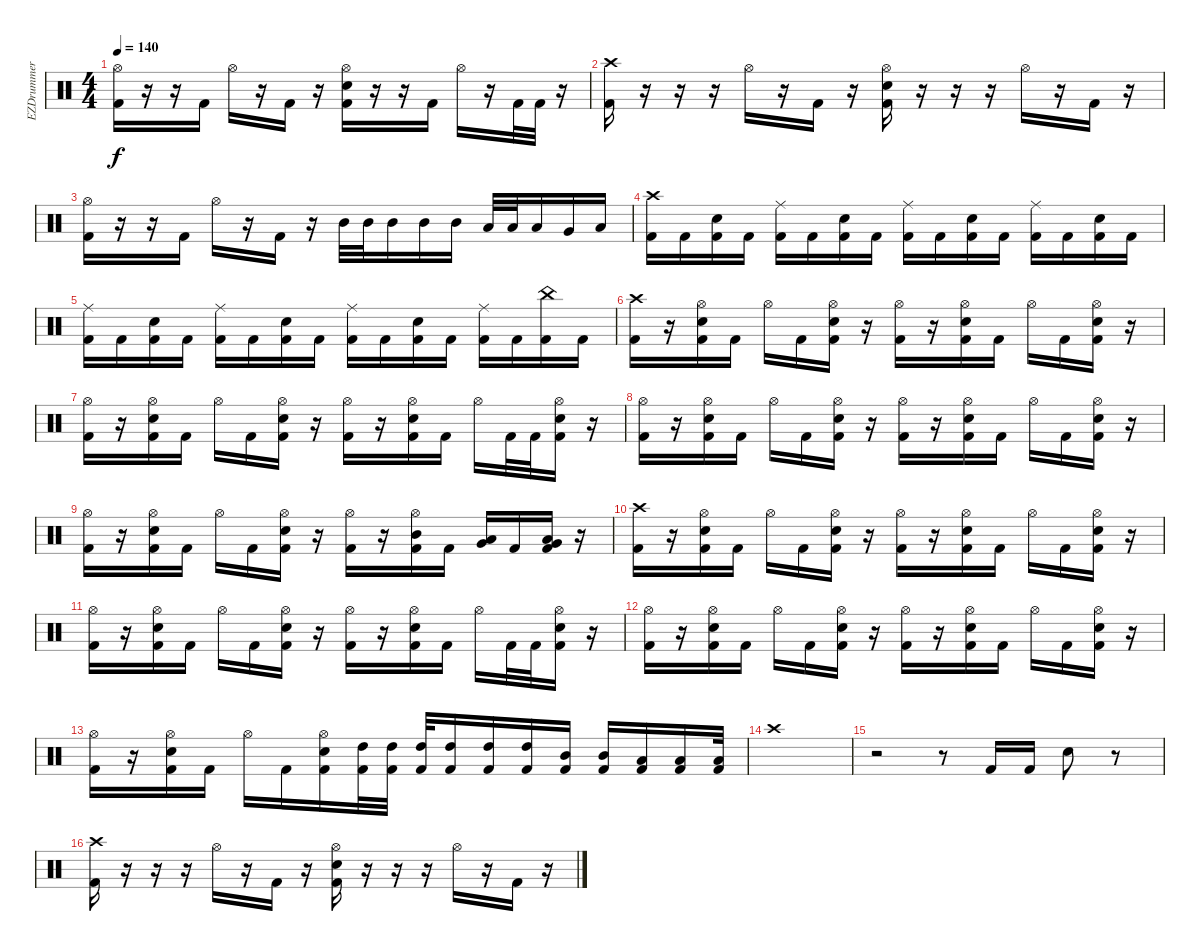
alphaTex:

\track ("EZDrummer" "EZDrummer") {instrument percussion}
\staff {score}
\articulation defaults
\ts (4 4)
\tempo 140
\clef neutral
\ks c
("Hi-Hat (open)" "Kick (hit) 2").16{dy f} r.16 r.16 "Kick (hit) 2".16 "Hi-Hat (open)".16 r.16 "Kick (hit) 2".16 r.16 ("Hi-Hat (open)" "Snare (hit) 2" "Kick (hit) 2").16 r.16 r.16 "Kick (hit) 2".16 "Hi-Hat (open)".16 r.16 "Kick (hit) 2".32 "Kick (hit) 2".32 r.16 |
("Crash high (hit)" "Kick (hit) 2").16 r.16 r.16 r.16 "Hi-Hat (open)".16 r.16 "Kick (hit) 2".16 r.16 ("Hi-Hat (open)" "Snare (hit) 2" "Kick (hit) 2").16 r.16 r.16 r.16 "Hi-Hat (open)".16 r.16 "Kick (hit) 2".16 r.16 |
("Hi-Hat (open)" "Kick (hit) 2").16 r.16 r.16 "Kick (hit) 2".16 "Hi-Hat (open)".16 r.16 "Kick (hit) 2".16 r.16 "Mid Tom (hit)".32 "Mid Tom (hit)".32 "Mid Tom (hit)".16 "Mid Tom (hit)".16 "Mid Tom (hit)".16 "Low Tom (hit)".32 "Low Tom (hit)".32 "Low Tom (hit)".16 "Very Low Tom (hit)".16 "Low Floor Tom (hit)".16 |
("Crash high (hit)" "Kick (hit) 2").16 "Kick (hit) 2".16 ("Snare (hit) 2" "Kick (hit) 2").16 "Kick (hit) 2".16 ("Ride (middle)" "Kick (hit) 2").16 "Kick (hit) 2".16 ("Snare (hit) 2" "Kick (hit) 2").16 "Kick (hit) 2".16 ("Ride (middle)" "Kick (hit) 2").16 "Kick (hit) 2".16 ("Snare (hit) 2" "Kick (hit) 2").16 "Kick (hit) 2".16 ("Ride (middle)" "Kick (hit) 2").16 "Kick (hit) 2".16 ("Snare (hit) 2" "Kick (hit) 2").16 "Kick (hit) 2".16 |
("Ride (middle)" "Kick (hit) 2").16 "Kick (hit) 2".16 ("Snare (hit) 2" "Kick (hit) 2").16 "Kick (hit) 2".16 ("Ride (middle)" "Kick (hit) 2").16 "Kick (hit) 2".16 ("Snare (hit) 2" "Kick (hit) 2").16 "Kick (hit) 2".16 ("Ride (middle)" "Kick (hit) 2").16 "Kick (hit) 2".16 ("Snare (hit) 2" "Kick (hit) 2").16 "Kick (hit) 2".16 ("Ride (middle)" "Kick (hit) 2").16 "Kick (hit) 2".16 ("China (hit)" "Kick (hit) 2").16 "Kick (hit) 2".16 |
("Crash high (hit)" "Kick (hit) 2").16 r.16 ("Hi-Hat (open)" "Snare (hit) 2" "Kick (hit) 2").16 "Kick (hit) 2".16 "Hi-Hat (open)".16 "Kick (hit) 2".16 ("Hi-Hat (open)" "Snare (hit) 2" "Kick (hit) 2").16 r.16 ("Hi-Hat (open)" "Kick (hit) 2").16 r.16 ("Hi-Hat (open)" "Snare (hit) 2" "Kick (hit) 2").16 "Kick (hit) 2".16 "Hi-Hat (open)".16 "Kick (hit) 2".16 ("Hi-Hat (open)" "Snare (hit) 2" "Kick (hit) 2").16 r.16 |
("Hi-Hat (open)" "Kick (hit) 2").16 r.16 ("Hi-Hat (open)" "Snare (hit) 2" "Kick (hit) 2").16 "Kick (hit) 2".16 "Hi-Hat (open)".16 "Kick (hit) 2".16 ("Hi-Hat (open)" "Snare (hit) 2" "Kick (hit) 2").16 r.16 ("Hi-Hat (open)" "Kick (hit) 2").16 r.16 ("Hi-Hat (open)" "Snare (hit) 2" "Kick (hit) 2").16 "Kick (hit) 2".16 "Hi-Hat (open)".16 "Kick (hit) 2".32 "Kick (hit) 2".32 ("Hi-Hat (open)" "Snare (hit) 2" "Kick (hit) 2").16 r.16 |
("Hi-Hat (open)" "Kick (hit) 2").16 r.16 ("Hi-Hat (open)" "Snare (hit) 2" "Kick (hit) 2").16 "Kick (hit) 2".16 "Hi-Hat (open)".16 "Kick (hit) 2".16 ("Hi-Hat (open)" "Snare (hit) 2" "Kick (hit) 2").16 r.16 ("Hi-Hat (open)" "Kick (hit) 2").16 r.16 ("Hi-Hat (open)" "Snare (hit) 2" "Kick (hit) 2").16 "Kick (hit) 2".16 "Hi-Hat (open)".16 "Kick (hit) 2".16 ("Hi-Hat (open)" "Snare (hit) 2" "Kick (hit) 2").16 r.16 |
("Hi-Hat (open)" "Kick (hit) 2").16 r.16 ("Hi-Hat (open)" "Snare (hit) 2" "Kick (hit) 2").16 "Kick (hit) 2".16 "Hi-Hat (open)".16 "Kick (hit) 2".16 ("Hi-Hat (open)" "Snare (hit) 2" "Kick (hit) 2").16 r.16 ("Hi-Hat (open)" "Kick (hit) 2").16 r.16 ("Hi-Hat (open)" "Mid Tom (hit)" "Kick (hit) 2").16 "Kick (hit) 2".16 ("Low Tom (hit)" "Very Low Tom (hit)").16 "Kick (hit) 2".16 ("Low Floor Tom (hit)" "Very Low Tom (hit)" "Kick (hit) 2").16 r.16 |
("Crash high (hit)" "Kick (hit) 2").16 r.16 ("Hi-Hat (open)" "Snare (hit) 2" "Kick (hit) 2").16 "Kick (hit) 2".16 "Hi-Hat (open)".16 "Kick (hit) 2".16 ("Hi-Hat (open)" "Snare (hit) 2" "Kick (hit) 2").16 r.16 ("Hi-Hat (open)" "Kick (hit) 2").16 r.16 ("Hi-Hat (open)" "Snare (hit) 2" "Kick (hit) 2").16 "Kick (hit) 2".16 "Hi-Hat (open)".16 "Kick (hit) 2".16 ("Hi-Hat (open)" "Snare (hit) 2" "Kick (hit) 2").16 r.16 |
("Hi-Hat (open)" "Kick (hit) 2").16 r.16 ("Hi-Hat (open)" "Snare (hit) 2" "Kick (hit) 2").16 "Kick (hit) 2".16 "Hi-Hat (open)".16 "Kick (hit) 2".16 ("Hi-Hat (open)" "Snare (hit) 2" "Kick (hit) 2").16 r.16 ("Hi-Hat (open)" "Kick (hit) 2").16 r.16 ("Hi-Hat (open)" "Snare (hit) 2" "Kick (hit) 2").16 "Kick (hit) 2".16 "Hi-Hat (open)".16 "Kick (hit) 2".32 "Kick (hit) 2".32 ("Hi-Hat (open)" "Snare (hit) 2" "Kick (hit) 2").16 r.16 |
("Hi-Hat (open)" "Kick (hit) 2").16 r.16 ("Hi-Hat (open)" "Snare (hit) 2" "Kick (hit) 2").16 "Kick (hit) 2".16 "Hi-Hat (open)".16 "Kick (hit) 2".16 ("Hi-Hat (open)" "Snare (hit) 2" "Kick (hit) 2").16 r.16 ("Hi-Hat (open)" "Kick (hit) 2").16 r.16 ("Hi-Hat (open)" "Snare (hit) 2" "Kick (hit) 2").16 "Kick (hit) 2".16 "Hi-Hat (open)".16 "Kick (hit) 2".16 ("Hi-Hat (open)" "Snare (hit) 2" "Kick (hit) 2").16 r.16 |
("Hi-Hat (open)" "Kick (hit) 2").16 r.16 ("Hi-Hat (open)" "Snare (hit) 2" "Kick (hit) 2").16 "Kick (hit) 2".16 "Hi-Hat (open)".16 "Kick (hit) 2".16 ("Hi-Hat (open)" "Snare (hit) 2" "Kick (hit) 2").16 ("High Tom (hit)" "Kick (hit) 2").32 ("High Tom (hit)" "Kick (hit) 2").32 ("High Tom (hit)" "Kick (hit) 2").32 ("High Tom (hit)" "Kick (hit) 2").16 ("High Tom (hit)" "Kick (hit) 2").16 ("High Tom (hit)" "Kick (hit) 2").16 ("Mid Tom (hit)" "Kick (hit) 2").16 ("Mid Tom (hit)" "Kick (hit) 2").16 ("Low Tom (hit)" "Kick (hit) 2").16 ("Low Tom (hit)" "Kick (hit) 2").16 ("Low Tom (hit)" "Kick (hit) 2").32 |
"Crash high (hit)".1 |
r.2 r.8 "Kick (hit) 2".16 "Kick (hit) 2".16 "Snare (hit) 2".8 r.8 |
("Crash high (hit)" "Kick (hit) 2").16 r.16 r.16 r.16 "Hi-Hat (open)".16 r.16 "Kick (hit) 2".16 r.16 ("Hi-Hat (open)" "Snare (hit) 2" "Kick (hit) 2").16 r.16 r.16 r.16 "Hi-Hat (open)".16 r.16 "Kick (hit) 2".16 r.16
